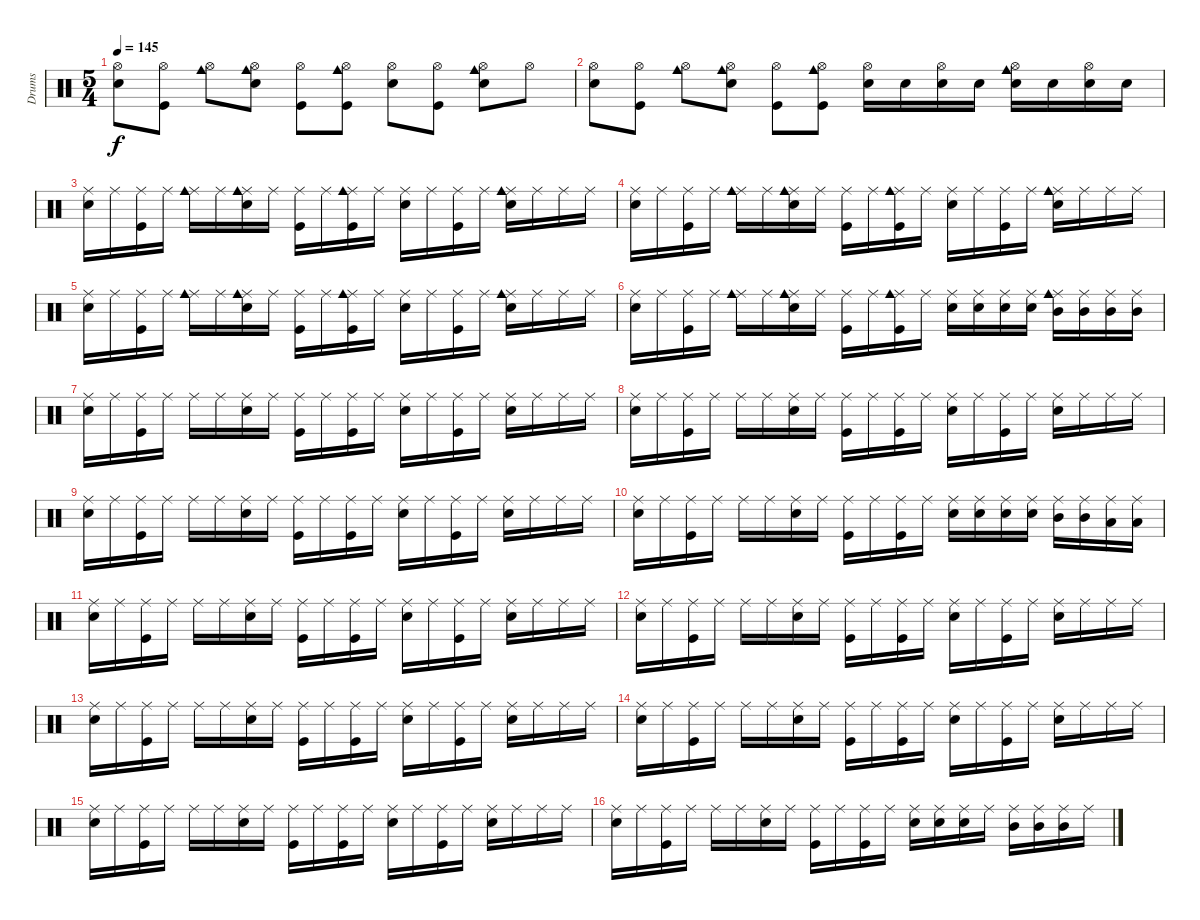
\track ("Drums" "Drums") {instrument percussion}
\staff {score}
\articulation defaults
\ts (5 4)
\tempo 145
\clef neutral
\ks c
("Hi-Hat (open)" "Snare (hit) 2").8{dy f} ("Hi-Hat (open)" "Kick (hit)").8 ("Hi-Hat (open)" "Cowbell medium (hit)").8 ("Hi-Hat (open)" "Cowbell medium (hit)" "Snare (hit) 2").8 ("Hi-Hat (open)" "Kick (hit)").8 ("Hi-Hat (open)" "Cowbell medium (hit)" "Kick (hit)").8 ("Hi-Hat (open)" "Snare (hit) 2").8 ("Hi-Hat (open)" "Kick (hit)").8 ("Hi-Hat (open)" "Cowbell medium (hit)" "Snare (hit) 2").8 "Hi-Hat (open)".8 |
("Hi-Hat (open)" "Snare (hit) 2").8 ("Hi-Hat (open)" "Kick (hit)").8 ("Hi-Hat (open)" "Cowbell medium (hit)").8 ("Hi-Hat (open)" "Cowbell medium (hit)" "Snare (hit) 2").8 ("Hi-Hat (open)" "Kick (hit)").8 ("Hi-Hat (open)" "Cowbell medium (hit)" "Kick (hit)").8 ("Hi-Hat (open)" "Snare (hit) 2").16 "Snare (hit) 2".16 ("Hi-Hat (open)" "Snare (hit) 2").16 "Snare (hit) 2".16 ("Hi-Hat (open)" "Cowbell medium (hit)" "Snare (hit) 2").16 "Snare (hit) 2".16 ("Hi-Hat (open)" "Snare (hit) 2").16 "Snare (hit) 2".16 |
("Ride (middle)" "Snare (hit) 2").16 "Ride (middle)".16 ("Ride (middle)" "Kick (hit)").16 "Ride (middle)".16 ("Ride (middle)" "Cowbell medium (hit)").16 "Ride (middle)".16 ("Ride (middle)" "Cowbell medium (hit)" "Snare (hit) 2").16 "Ride (middle)".16 ("Ride (middle)" "Kick (hit)").16 "Ride (middle)".16 ("Ride (middle)" "Cowbell medium (hit)" "Kick (hit)").16 "Ride (middle)".16 ("Ride (middle)" "Snare (hit) 2").16 "Ride (middle)".16 ("Ride (middle)" "Kick (hit)").16 "Ride (middle)".16 ("Ride (middle)" "Cowbell medium (hit)" "Snare (hit) 2").16 "Ride (middle)".16 "Ride (middle)".16 "Ride (middle)".16 |
("Ride (middle)" "Snare (hit) 2").16 "Ride (middle)".16 ("Ride (middle)" "Kick (hit)").16 "Ride (middle)".16 ("Ride (middle)" "Cowbell medium (hit)").16 "Ride (middle)".16 ("Ride (middle)" "Cowbell medium (hit)" "Snare (hit) 2").16 "Ride (middle)".16 ("Ride (middle)" "Kick (hit)").16 "Ride (middle)".16 ("Ride (middle)" "Cowbell medium (hit)" "Kick (hit)").16 "Ride (middle)".16 ("Ride (middle)" "Snare (hit) 2").16 "Ride (middle)".16 ("Ride (middle)" "Kick (hit)").16 "Ride (middle)".16 ("Ride (middle)" "Cowbell medium (hit)" "Snare (hit) 2").16 "Ride (middle)".16 "Ride (middle)".16 "Ride (middle)".16 |
("Ride (middle)" "Snare (hit) 2").16 "Ride (middle)".16 ("Ride (middle)" "Kick (hit)").16 "Ride (middle)".16 ("Ride (middle)" "Cowbell medium (hit)").16 "Ride (middle)".16 ("Ride (middle)" "Cowbell medium (hit)" "Snare (hit) 2").16 "Ride (middle)".16 ("Ride (middle)" "Kick (hit)").16 "Ride (middle)".16 ("Ride (middle)" "Cowbell medium (hit)" "Kick (hit)").16 "Ride (middle)".16 ("Ride (middle)" "Snare (hit) 2").16 "Ride (middle)".16 ("Ride (middle)" "Kick (hit)").16 "Ride (middle)".16 ("Ride (middle)" "Cowbell medium (hit)" "Snare (hit) 2").16 "Ride (middle)".16 "Ride (middle)".16 "Ride (middle)".16 |
("Ride (middle)" "Snare (hit) 2").16 "Ride (middle)".16 ("Ride (middle)" "Kick (hit)").16 "Ride (middle)".16 ("Ride (middle)" "Cowbell medium (hit)").16 "Ride (middle)".16 ("Ride (middle)" "Cowbell medium (hit)" "Snare (hit) 2").16 "Ride (middle)".16 ("Ride (middle)" "Kick (hit)").16 "Ride (middle)".16 ("Ride (middle)" "Cowbell medium (hit)" "Kick (hit)").16 "Ride (middle)".16 ("Ride (middle)" "Snare (hit) 2").16 ("Ride (middle)" "Snare (hit) 2").16 ("Ride (middle)" "Snare (hit) 2").16 ("Ride (middle)" "Snare (hit) 2").16 ("Ride (middle)" "Cowbell medium (hit)" "Mid Tom (hit)").16 ("Ride (middle)" "Mid Tom (hit)").16 ("Ride (middle)" "Mid Tom (hit)").16 ("Ride (middle)" "Mid Tom (hit)").16 |
("Ride (middle)" "Snare (hit) 2").16 "Ride (middle)".16 ("Ride (middle)" "Kick (hit)").16 "Ride (middle)".16 "Ride (middle)".16 "Ride (middle)".16 ("Ride (middle)" "Snare (hit) 2").16 "Ride (middle)".16 ("Ride (middle)" "Kick (hit)").16 "Ride (middle)".16 ("Ride (middle)" "Kick (hit)").16 "Ride (middle)".16 ("Ride (middle)" "Snare (hit) 2").16 "Ride (middle)".16 ("Ride (middle)" "Kick (hit)").16 "Ride (middle)".16 ("Ride (middle)" "Snare (hit) 2").16 "Ride (middle)".16 "Ride (middle)".16 "Ride (middle)".16 |
("Ride (middle)" "Snare (hit) 2").16 "Ride (middle)".16 ("Ride (middle)" "Kick (hit)").16 "Ride (middle)".16 "Ride (middle)".16 "Ride (middle)".16 ("Ride (middle)" "Snare (hit) 2").16 "Ride (middle)".16 ("Ride (middle)" "Kick (hit)").16 "Ride (middle)".16 ("Ride (middle)" "Kick (hit)").16 "Ride (middle)".16 ("Ride (middle)" "Snare (hit) 2").16 "Ride (middle)".16 ("Ride (middle)" "Kick (hit)").16 "Ride (middle)".16 ("Ride (middle)" "Snare (hit) 2").16 "Ride (middle)".16 "Ride (middle)".16 "Ride (middle)".16 |
("Ride (middle)" "Snare (hit) 2").16 "Ride (middle)".16 ("Ride (middle)" "Kick (hit)").16 "Ride (middle)".16 "Ride (middle)".16 "Ride (middle)".16 ("Ride (middle)" "Snare (hit) 2").16 "Ride (middle)".16 ("Ride (middle)" "Kick (hit)").16 "Ride (middle)".16 ("Ride (middle)" "Kick (hit)").16 "Ride (middle)".16 ("Ride (middle)" "Snare (hit) 2").16 "Ride (middle)".16 ("Ride (middle)" "Kick (hit)").16 "Ride (middle)".16 ("Ride (middle)" "Snare (hit) 2").16 "Ride (middle)".16 "Ride (middle)".16 "Ride (middle)".16 |
("Ride (middle)" "Snare (hit) 2").16 "Ride (middle)".16 ("Ride (middle)" "Kick (hit)").16 "Ride (middle)".16 "Ride (middle)".16 "Ride (middle)".16 ("Ride (middle)" "Snare (hit) 2").16 "Ride (middle)".16 ("Ride (middle)" "Kick (hit)").16 "Ride (middle)".16 ("Ride (middle)" "Kick (hit)").16 "Ride (middle)".16 ("Ride (middle)" "Snare (hit) 2").16 ("Ride (middle)" "Snare (hit) 2").16 ("Ride (middle)" "Snare (hit) 2").16 ("Ride (middle)" "Snare (hit) 2").16 ("Ride (middle)" "Mid Tom (hit)").16 ("Ride (middle)" "Mid Tom (hit)").16 ("Ride (middle)" "Low Tom (hit)").16 ("Ride (middle)" "Low Tom (hit)").16 |
("Ride (middle)" "Snare (hit) 2").16 "Ride (middle)".16 ("Ride (middle)" "Kick (hit)").16 "Ride (middle)".16 "Ride (middle)".16 "Ride (middle)".16 ("Ride (middle)" "Snare (hit) 2").16 "Ride (middle)".16 ("Ride (middle)" "Kick (hit)").16 "Ride (middle)".16 ("Ride (middle)" "Kick (hit)").16 "Ride (middle)".16 ("Ride (middle)" "Snare (hit) 2").16 "Ride (middle)".16 ("Ride (middle)" "Kick (hit)").16 "Ride (middle)".16 ("Ride (middle)" "Snare (hit) 2").16 "Ride (middle)".16 "Ride (middle)".16 "Ride (middle)".16 |
("Ride (middle)" "Snare (hit) 2").16 "Ride (middle)".16 ("Ride (middle)" "Kick (hit)").16 "Ride (middle)".16 "Ride (middle)".16 "Ride (middle)".16 ("Ride (middle)" "Snare (hit) 2").16 "Ride (middle)".16 ("Ride (middle)" "Kick (hit)").16 "Ride (middle)".16 ("Ride (middle)" "Kick (hit)").16 "Ride (middle)".16 ("Ride (middle)" "Snare (hit) 2").16 "Ride (middle)".16 ("Ride (middle)" "Kick (hit)").16 "Ride (middle)".16 ("Ride (middle)" "Snare (hit) 2").16 "Ride (middle)".16 "Ride (middle)".16 "Ride (middle)".16 |
("Ride (middle)" "Snare (hit) 2").16 "Ride (middle)".16 ("Ride (middle)" "Kick (hit)").16 "Ride (middle)".16 "Ride (middle)".16 "Ride (middle)".16 ("Ride (middle)" "Snare (hit) 2").16 "Ride (middle)".16 ("Ride (middle)" "Kick (hit)").16 "Ride (middle)".16 ("Ride (middle)" "Kick (hit)").16 "Ride (middle)".16 ("Ride (middle)" "Snare (hit) 2").16 "Ride (middle)".16 ("Ride (middle)" "Kick (hit)").16 "Ride (middle)".16 ("Ride (middle)" "Snare (hit) 2").16 "Ride (middle)".16 "Ride (middle)".16 "Ride (middle)".16 |
("Ride (middle)" "Snare (hit) 2").16 "Ride (middle)".16 ("Ride (middle)" "Kick (hit)").16 "Ride (middle)".16 "Ride (middle)".16 "Ride (middle)".16 ("Ride (middle)" "Snare (hit) 2").16 "Ride (middle)".16 ("Ride (middle)" "Kick (hit)").16 "Ride (middle)".16 ("Ride (middle)" "Kick (hit)").16 "Ride (middle)".16 ("Ride (middle)" "Snare (hit) 2").16 "Ride (middle)".16 ("Ride (middle)" "Kick (hit)").16 "Ride (middle)".16 ("Ride (middle)" "Snare (hit) 2").16 "Ride (middle)".16 "Ride (middle)".16 "Ride (middle)".16 |
("Ride (middle)" "Snare (hit) 2").16 "Ride (middle)".16 ("Ride (middle)" "Kick (hit)").16 "Ride (middle)".16 "Ride (middle)".16 "Ride (middle)".16 ("Ride (middle)" "Snare (hit) 2").16 "Ride (middle)".16 ("Ride (middle)" "Kick (hit)").16 "Ride (middle)".16 ("Ride (middle)" "Kick (hit)").16 "Ride (middle)".16 ("Ride (middle)" "Snare (hit) 2").16 "Ride (middle)".16 ("Ride (middle)" "Kick (hit)").16 "Ride (middle)".16 ("Ride (middle)" "Snare (hit) 2").16 "Ride (middle)".16 "Ride (middle)".16 "Ride (middle)".16 |
("Ride (middle)" "Snare (hit) 2").16 "Ride (middle)".16 ("Ride (middle)" "Kick (hit)").16 "Ride (middle)".16 "Ride (middle)".16 "Ride (middle)".16 ("Ride (middle)" "Snare (hit) 2").16 "Ride (middle)".16 ("Ride (middle)" "Kick (hit)").16 "Ride (middle)".16 ("Ride (middle)" "Kick (hit)").16 "Ride (middle)".16 ("Ride (middle)" "Snare (hit) 2").16 ("Ride (middle)" "Snare (hit) 2").16 ("Ride (middle)" "Snare (hit) 2").16 "Ride (middle)".16 ("Ride (middle)" "Mid Tom (hit)").16 ("Ride (middle)" "Mid Tom (hit)").16 ("Ride (middle)" "Mid Tom (hit)").16 "Ride (middle)".16
